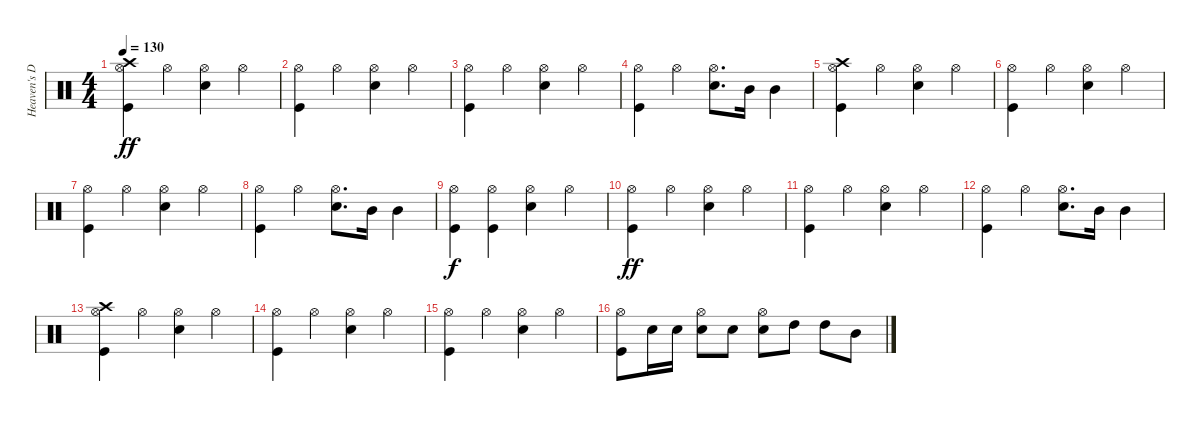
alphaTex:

\track ("Heaven's Door" "Heaven's D") {instrument percussion}
\staff {score}
\articulation defaults
\ts (4 4)
\tempo 130
\clef neutral
\ks c
("Crash high (hit)" "Hi-Hat (open)" "Kick (hit)").4{dy ff} "Hi-Hat (open)".4 ("Hi-Hat (open)" "Electric Snare (hit)").4 "Hi-Hat (open)".4 |
("Hi-Hat (open)" "Kick (hit)").4 "Hi-Hat (open)".4 ("Electric Snare (hit)" "Hi-Hat (open)").4 "Hi-Hat (open)".4 |
("Kick (hit)" "Hi-Hat (open)").4 "Hi-Hat (open)".4 ("Electric Snare (hit)" "Hi-Hat (open)").4 "Hi-Hat (open)".4 |
("Hi-Hat (open)" "Kick (hit)").4 "Hi-Hat (open)".4 ("Hi-Hat (open)" "Electric Snare (hit)").8{d} "Mid Tom (hit)".16 "Mid Tom (hit)".4 |
("Crash high (hit)" "Hi-Hat (open)" "Kick (hit)").4 "Hi-Hat (open)".4 ("Hi-Hat (open)" "Electric Snare (hit)").4 "Hi-Hat (open)".4 |
("Hi-Hat (open)" "Kick (hit)").4 "Hi-Hat (open)".4 ("Electric Snare (hit)" "Hi-Hat (open)").4 "Hi-Hat (open)".4 |
("Kick (hit)" "Hi-Hat (open)").4 "Hi-Hat (open)".4 ("Electric Snare (hit)" "Hi-Hat (open)").4 "Hi-Hat (open)".4 |
("Hi-Hat (open)" "Kick (hit)").4 "Hi-Hat (open)".4 ("Hi-Hat (open)" "Electric Snare (hit)").8{d} "Mid Tom (hit)".16 "Mid Tom (hit)".4 |
("Hi-Hat (open)" "Kick (hit)").4{dy f} ("Hi-Hat (open)" "Kick (hit)").4 ("Hi-Hat (open)" "Electric Snare (hit)").4 "Hi-Hat (open)".4 |
("Hi-Hat (open)" "Kick (hit)").4{dy ff} "Hi-Hat (open)".4 ("Electric Snare (hit)" "Hi-Hat (open)").4 "Hi-Hat (open)".4 |
("Kick (hit)" "Hi-Hat (open)").4 "Hi-Hat (open)".4 ("Electric Snare (hit)" "Hi-Hat (open)").4 "Hi-Hat (open)".4 |
("Hi-Hat (open)" "Kick (hit)").4 "Hi-Hat (open)".4 ("Hi-Hat (open)" "Electric Snare (hit)").8{d} "Mid Tom (hit)".16 "Mid Tom (hit)".4 |
("Crash high (hit)" "Hi-Hat (open)" "Kick (hit)").4 "Hi-Hat (open)".4 ("Hi-Hat (open)" "Electric Snare (hit)").4 "Hi-Hat (open)".4 |
("Hi-Hat (open)" "Kick (hit)").4 "Hi-Hat (open)".4 ("Electric Snare (hit)" "Hi-Hat (open)").4 "Hi-Hat (open)".4 |
("Kick (hit)" "Hi-Hat (open)").4 "Hi-Hat (open)".4 ("Electric Snare (hit)" "Hi-Hat (open)").4 "Hi-Hat (open)".4 |
("Hi-Hat (open)" "Kick (hit)").8 "Electric Snare (hit)".16 "Electric Snare (hit)".16 ("Electric Snare (hit)" "Hi-Hat (open)").8 "Electric Snare (hit)".8 ("Electric Snare (hit)" "Hi-Hat (open)").8 "High Tom (hit)".8 "High Tom (hit)".8 "Mid Tom (hit)".8
